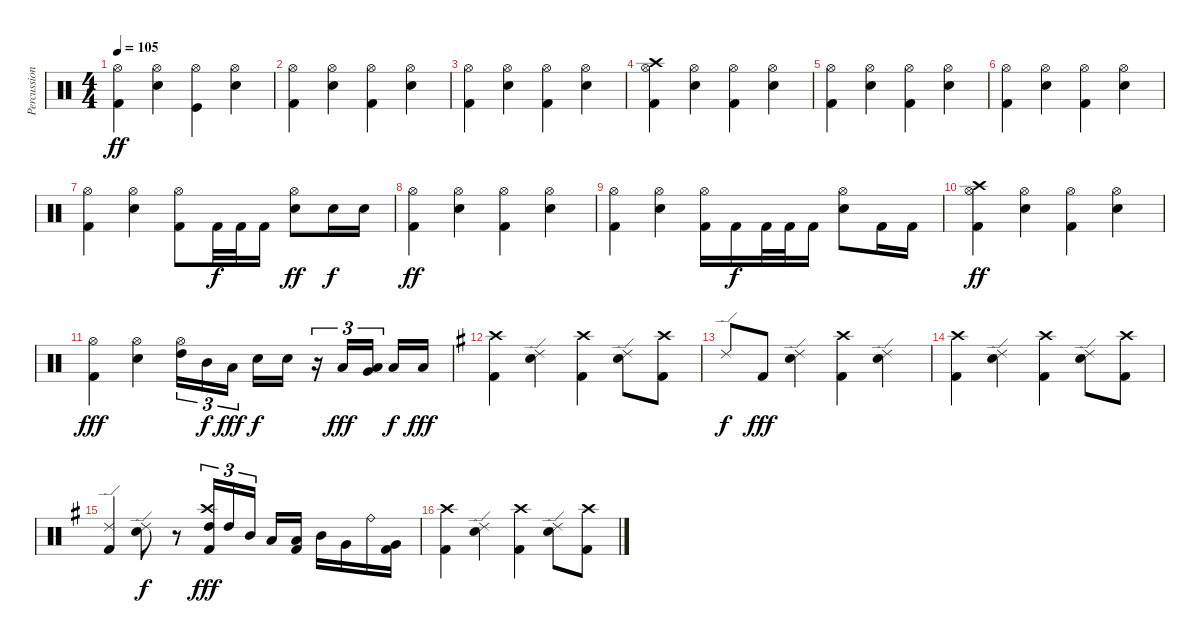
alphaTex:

\track ("Percussion" "Percussion") {instrument percussion}
\staff {score}
\articulation defaults
\ts (4 4)
\tempo 105
\clef neutral
\ks c
("Hi-Hat (open)" "Kick (hit) 2").4{dy ff} ("Hi-Hat (open)" "Electric Snare (hit)").4 ("Hi-Hat (open)" "Kick (hit)").4 ("Hi-Hat (open)" "Electric Snare (hit)").4 |
("Hi-Hat (open)" "Kick (hit) 2").4 ("Hi-Hat (open)" "Electric Snare (hit)").4 ("Hi-Hat (open)" "Kick (hit) 2").4 ("Hi-Hat (open)" "Electric Snare (hit)").4 |
("Hi-Hat (open)" "Kick (hit) 2").4 ("Hi-Hat (open)" "Electric Snare (hit)").4 ("Hi-Hat (open)" "Kick (hit) 2").4 ("Hi-Hat (open)" "Electric Snare (hit)").4 |
("Crash high (hit)" "Hi-Hat (open)" "Kick (hit) 2").4 ("Hi-Hat (open)" "Electric Snare (hit)").4 ("Hi-Hat (open)" "Kick (hit) 2").4 ("Hi-Hat (open)" "Electric Snare (hit)").4 |
("Hi-Hat (open)" "Kick (hit) 2").4 ("Hi-Hat (open)" "Electric Snare (hit)").4 ("Hi-Hat (open)" "Kick (hit) 2").4 ("Hi-Hat (open)" "Electric Snare (hit)").4 |
("Hi-Hat (open)" "Kick (hit) 2").4 ("Hi-Hat (open)" "Electric Snare (hit)").4 ("Hi-Hat (open)" "Kick (hit) 2").4 ("Hi-Hat (open)" "Electric Snare (hit)").4 |
("Hi-Hat (open)" "Kick (hit) 2").4 ("Hi-Hat (open)" "Electric Snare (hit)").4 ("Hi-Hat (open)" "Kick (hit) 2").8 "Kick (hit) 2".32{dy f} "Kick (hit) 2".32 "Kick (hit) 2".16 ("Hi-Hat (open)" "Electric Snare (hit)").8{dy ff} "Electric Snare (hit)".16{dy f} "Electric Snare (hit)".16 |
("Hi-Hat (open)" "Kick (hit) 2").4{dy ff} ("Hi-Hat (open)" "Electric Snare (hit)").4 ("Hi-Hat (open)" "Kick (hit) 2").4 ("Hi-Hat (open)" "Electric Snare (hit)").4 |
("Hi-Hat (open)" "Kick (hit) 2").4 ("Hi-Hat (open)" "Electric Snare (hit)").4 ("Hi-Hat (open)" "Kick (hit) 2").16 "Kick (hit) 2".16{dy f} "Kick (hit) 2".32 "Kick (hit) 2".32 "Kick (hit) 2".16 ("Hi-Hat (open)" "Electric Snare (hit)").8 "Kick (hit) 2".16 "Kick (hit) 2".16 |
("Crash high (hit)" "Hi-Hat (open)" "Kick (hit) 2").4{dy ff} ("Hi-Hat (open)" "Electric Snare (hit)").4 ("Hi-Hat (open)" "Kick (hit) 2").4 ("Hi-Hat (open)" "Electric Snare (hit)").4 |
("Hi-Hat (open)" "Kick (hit) 2").4{dy fff} ("Hi-Hat (open)" "Electric Snare (hit)").4 ("Hi-Hat (open)" "High Tom (hit)").16{tu (3 2)} "Mid Tom (hit)".16{tu (3 2) dy f} "Low Tom (hit)".16{tu (3 2) dy fff beam splitsecondary} "Electric Snare (hit)".16{dy f} "Electric Snare (hit)".16 r.16{tu (3 2)} "Low Tom (hit)".16{tu (3 2) dy fff} ("Low Floor Tom (hit)" "Very Low Tom (hit)").16{tu (3 2) beam splitsecondary} "Low Floor Tom (hit)".16{dy f} "Low Floor Tom (hit)".16{dy fff} |
\ks g
("Crash high (hit)" "Kick (hit) 2").4 ("Ride (edge) 2" "Electric Snare (hit)").4 ("Crash high (hit)" "Kick (hit) 2").4 ("Ride (edge) 2" "Electric Snare (hit)").8 ("Crash high (hit)" "Kick (hit) 2").8 |
"Ride (edge) 2".8{dy f} "Kick (hit) 2".8{dy fff} ("Ride (edge) 2" "Electric Snare (hit)").4 ("Crash high (hit)" "Kick (hit) 2").4 ("Ride (edge) 2" "Electric Snare (hit)").4 |
("Crash high (hit)" "Kick (hit) 2").4 ("Ride (edge) 2" "Electric Snare (hit)").4 ("Crash high (hit)" "Kick (hit) 2").4 ("Ride (edge) 2" "Electric Snare (hit)").8 ("Crash high (hit)" "Kick (hit) 2").8 |
("Ride (edge) 2" "Kick (hit) 2").4 ("Ride (edge) 2" "Electric Snare (hit)").8{dy f} r.8 ("Crash high (hit)" "High Tom (hit)" "Kick (hit) 2").16{tu (3 2) dy fff} "High Tom (hit)".16{tu (3 2)} "Mid Tom (hit)".16{tu (3 2) beam splitsecondary} "Low Tom (hit)".16 ("Low Tom (hit)" "Kick (hit) 2").16 "Mid Tom (hit)".16 "Very Low Tom (hit)".16 "Ride (bell)".16 ("Very Low Tom (hit)" "Kick (hit) 2").16 |
("Crash high (hit)" "Kick (hit) 2").4 ("Ride (edge) 2" "Electric Snare (hit)").4 ("Crash high (hit)" "Kick (hit) 2").4 ("Ride (edge) 2" "Electric Snare (hit)").8 ("Crash high (hit)" "Kick (hit) 2").8
